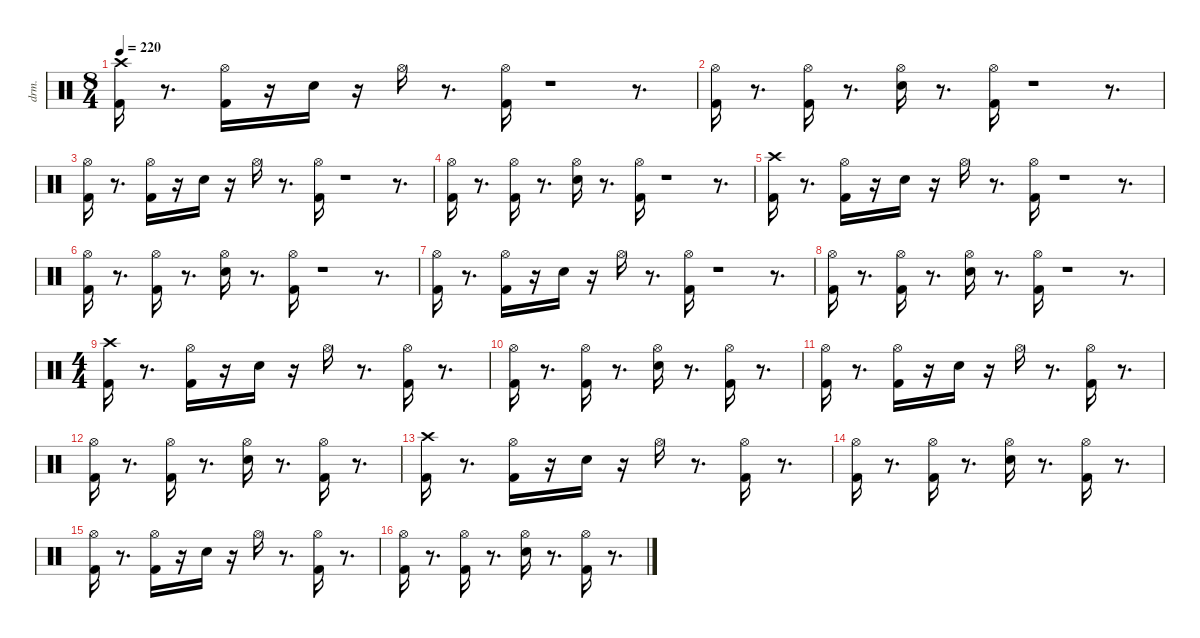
\defaultSystemsLayout 4
\hideDynamics
\bracketExtendMode nobrackets
\otherSystemsTrackNameOrientation horizontal
\track ("EZdrummer 3" "drm.") {mute instrument percussion}
\staff {score}
\articulation defaults
\ts (8 4)
\tempo 220
\clef neutral
\ks c
("Kick (hit) 2" "Crash high (hit)"{acc #}).16{dy fff beam Down} r.8{d beam Down} ("Kick (hit) 2" "Hi-Hat (open)"{acc #}).16{dy ff beam Down} r.16{beam Down} "Snare (hit) 2".16{beam Down} r.16{beam Down} "Hi-Hat (open)"{acc #}.16{beam Down} r.8{d beam Down} ("Kick (hit) 2" "Hi-Hat (open)"{acc #}).16{beam Down} r.1{beam Down} r.8{d beam Down} |
("Kick (hit) 2" "Hi-Hat (open)"{acc #}).16{beam Down} r.8{d beam Down} ("Kick (hit) 2" "Hi-Hat (open)"{acc #}).16{beam Down} r.8{d beam Down} ("Snare (hit) 2" "Hi-Hat (open)"{acc #}).16{beam Down} r.8{d beam Down} ("Kick (hit) 2" "Hi-Hat (open)"{acc #}).16{dy mf beam Down} r.1{beam Down} r.8{d beam Down} |
("Kick (hit) 2" "Hi-Hat (open)"{acc #}).16{dy fff beam Down} r.8{d beam Down} ("Kick (hit) 2" "Hi-Hat (open)"{acc #}).16{dy ff beam Down} r.16{beam Down} "Snare (hit) 2".16{beam Down} r.16{beam Down} "Hi-Hat (open)"{acc #}.16{beam Down} r.8{d beam Down} ("Kick (hit) 2" "Hi-Hat (open)"{acc #}).16{beam Down} r.1{beam Down} r.8{d beam Down} |
("Kick (hit) 2" "Hi-Hat (open)"{acc #}).16{beam Down} r.8{d beam Down} ("Kick (hit) 2" "Hi-Hat (open)"{acc #}).16{beam Down} r.8{d beam Down} ("Snare (hit) 2" "Hi-Hat (open)"{acc #}).16{beam Down} r.8{d beam Down} ("Kick (hit) 2" "Hi-Hat (open)"{acc #}).16{dy mf beam Down} r.1{beam Down} r.8{d beam Down} |
("Kick (hit) 2" "Crash high (hit)"{acc #}).16{dy fff beam Down} r.8{d beam Down} ("Kick (hit) 2" "Hi-Hat (open)"{acc #}).16{dy ff beam Down} r.16{beam Down} "Snare (hit) 2".16{beam Down} r.16{beam Down} "Hi-Hat (open)"{acc #}.16{beam Down} r.8{d beam Down} ("Kick (hit) 2" "Hi-Hat (open)"{acc #}).16{beam Down} r.1{beam Down} r.8{d beam Down} |
("Kick (hit) 2" "Hi-Hat (open)"{acc #}).16{beam Down} r.8{d beam Down} ("Kick (hit) 2" "Hi-Hat (open)"{acc #}).16{beam Down} r.8{d beam Down} ("Snare (hit) 2" "Hi-Hat (open)"{acc #}).16{beam Down} r.8{d beam Down} ("Kick (hit) 2" "Hi-Hat (open)"{acc #}).16{dy mf beam Down} r.1{beam Down} r.8{d beam Down} |
("Kick (hit) 2" "Hi-Hat (open)"{acc #}).16{dy fff beam Down} r.8{d beam Down} ("Kick (hit) 2" "Hi-Hat (open)"{acc #}).16{dy ff beam Down} r.16{beam Down} "Snare (hit) 2".16{beam Down} r.16{beam Down} "Hi-Hat (open)"{acc #}.16{beam Down} r.8{d beam Down} ("Kick (hit) 2" "Hi-Hat (open)"{acc #}).16{beam Down} r.1{beam Down} r.8{d beam Down} |
("Kick (hit) 2" "Hi-Hat (open)"{acc #}).16{beam Down} r.8{d beam Down} ("Kick (hit) 2" "Hi-Hat (open)"{acc #}).16{beam Down} r.8{d beam Down} ("Snare (hit) 2" "Hi-Hat (open)"{acc #}).16{beam Down} r.8{d beam Down} ("Kick (hit) 2" "Hi-Hat (open)"{acc #}).16{dy mf beam Down} r.1{beam Down} r.8{d beam Down} |
\ts (4 4)
("Kick (hit) 2" "Crash high (hit)"{acc #}).16{dy fff beam Down} r.8{d beam Down} ("Kick (hit) 2" "Hi-Hat (open)"{acc #}).16{dy ff beam Down} r.16{beam Down} "Snare (hit) 2".16{beam Down} r.16{beam Down} "Hi-Hat (open)"{acc #}.16{beam Down} r.8{d beam Down} ("Kick (hit) 2" "Hi-Hat (open)"{acc #}).16{beam Down} r.8{d beam Down} |
("Kick (hit) 2" "Hi-Hat (open)"{acc #}).16{beam Down} r.8{d beam Down} ("Kick (hit) 2" "Hi-Hat (open)"{acc #}).16{beam Down} r.8{d beam Down} ("Snare (hit) 2" "Hi-Hat (open)"{acc #}).16{beam Down} r.8{d beam Down} ("Kick (hit) 2" "Hi-Hat (open)"{acc #}).16{dy mf beam Down} r.8{d beam Down} |
("Kick (hit) 2" "Hi-Hat (open)"{acc #}).16{dy fff beam Down} r.8{d beam Down} ("Kick (hit) 2" "Hi-Hat (open)"{acc #}).16{dy ff beam Down} r.16{beam Down} "Snare (hit) 2".16{beam Down} r.16{beam Down} "Hi-Hat (open)"{acc #}.16{beam Down} r.8{d beam Down} ("Kick (hit) 2" "Hi-Hat (open)"{acc #}).16{beam Down} r.8{d beam Down} |
("Kick (hit) 2" "Hi-Hat (open)"{acc #}).16{beam Down} r.8{d beam Down} ("Kick (hit) 2" "Hi-Hat (open)"{acc #}).16{beam Down} r.8{d beam Down} ("Snare (hit) 2" "Hi-Hat (open)"{acc #}).16{beam Down} r.8{d beam Down} ("Kick (hit) 2" "Hi-Hat (open)"{acc #}).16{dy mf beam Down} r.8{d beam Down} |
("Kick (hit) 2" "Crash high (hit)"{acc #}).16{dy fff beam Down} r.8{d beam Down} ("Kick (hit) 2" "Hi-Hat (open)"{acc #}).16{dy ff beam Down} r.16{beam Down} "Snare (hit) 2".16{beam Down} r.16{beam Down} "Hi-Hat (open)"{acc #}.16{beam Down} r.8{d beam Down} ("Kick (hit) 2" "Hi-Hat (open)"{acc #}).16{beam Down} r.8{d beam Down} |
("Kick (hit) 2" "Hi-Hat (open)"{acc #}).16{beam Down} r.8{d beam Down} ("Kick (hit) 2" "Hi-Hat (open)"{acc #}).16{beam Down} r.8{d beam Down} ("Snare (hit) 2" "Hi-Hat (open)"{acc #}).16{beam Down} r.8{d beam Down} ("Kick (hit) 2" "Hi-Hat (open)"{acc #}).16{dy mf beam Down} r.8{d beam Down} |
("Kick (hit) 2" "Hi-Hat (open)"{acc #}).16{dy fff beam Down} r.8{d beam Down} ("Kick (hit) 2" "Hi-Hat (open)"{acc #}).16{dy ff beam Down} r.16{beam Down} "Snare (hit) 2".16{beam Down} r.16{beam Down} "Hi-Hat (open)"{acc #}.16{beam Down} r.8{d beam Down} ("Kick (hit) 2" "Hi-Hat (open)"{acc #}).16{beam Down} r.8{d beam Down} |
("Kick (hit) 2" "Hi-Hat (open)"{acc #}).16{beam Down} r.8{d beam Down} ("Kick (hit) 2" "Hi-Hat (open)"{acc #}).16{beam Down} r.8{d beam Down} ("Snare (hit) 2" "Hi-Hat (open)"{acc #}).16{beam Down} r.8{d beam Down} ("Kick (hit) 2" "Hi-Hat (open)"{acc #}).16{dy mf beam Down} r.8{d beam Down}
